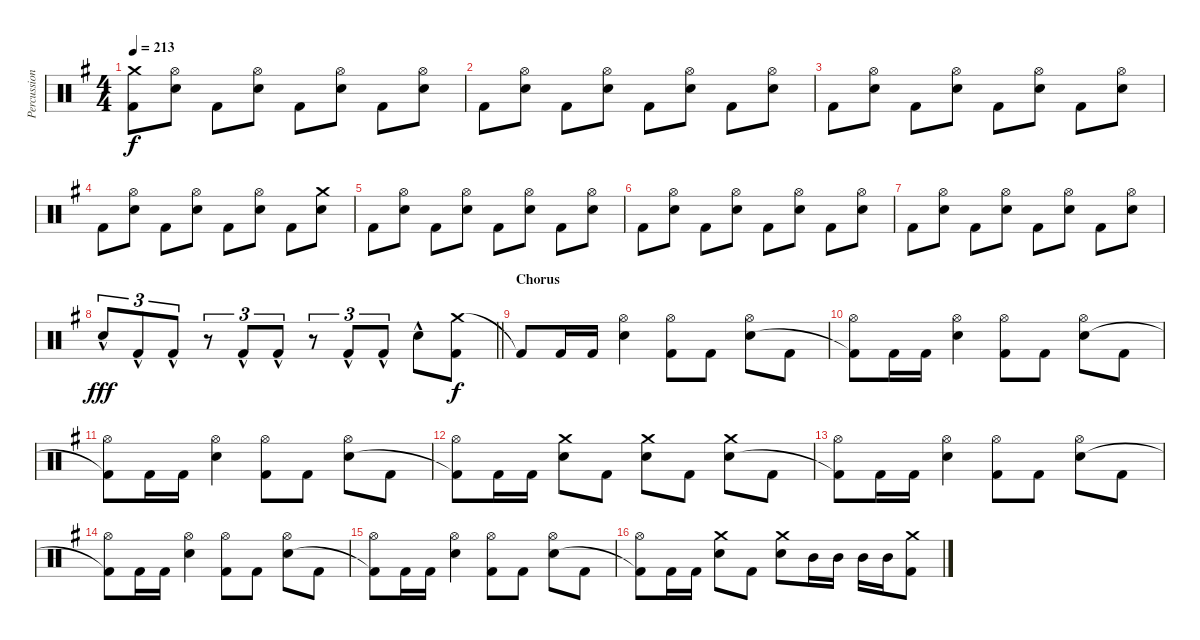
\track ("Percussion" "Percussion") {instrument percussion}
\staff {score}
\articulation defaults
\ts (4 4)
\tempo 213
\clef neutral
\ks eminor
("Crash medium (hit)" "Kick (hit) 2").8{dy f} ("Hi-Hat (open)" "Snare (hit) 2").8 "Kick (hit) 2".8 ("Hi-Hat (open)" "Snare (hit) 2").8 "Kick (hit) 2".8 ("Hi-Hat (open)" "Snare (hit) 2").8 "Kick (hit) 2".8 ("Hi-Hat (open)" "Snare (hit) 2").8 |
"Kick (hit) 2".8 ("Hi-Hat (open)" "Snare (hit) 2").8 "Kick (hit) 2".8 ("Hi-Hat (open)" "Snare (hit) 2").8 "Kick (hit) 2".8 ("Hi-Hat (open)" "Snare (hit) 2").8 "Kick (hit) 2".8 ("Hi-Hat (open)" "Snare (hit) 2").8 |
"Kick (hit) 2".8 ("Hi-Hat (open)" "Snare (hit) 2").8 "Kick (hit) 2".8 ("Hi-Hat (open)" "Snare (hit) 2").8 "Kick (hit) 2".8 ("Hi-Hat (open)" "Snare (hit) 2").8 "Kick (hit) 2".8 ("Hi-Hat (open)" "Snare (hit) 2").8 |
"Kick (hit) 2".8 ("Hi-Hat (open)" "Snare (hit) 2").8 "Kick (hit) 2".8 ("Hi-Hat (open)" "Snare (hit) 2").8 "Kick (hit) 2".8 ("Hi-Hat (open)" "Snare (hit) 2").8 "Kick (hit) 2".8 ("Crash medium (hit)" "Snare (hit) 2").8 |
"Kick (hit) 2".8 ("Hi-Hat (open)" "Snare (hit) 2").8 "Kick (hit) 2".8 ("Hi-Hat (open)" "Snare (hit) 2").8 "Kick (hit) 2".8 ("Hi-Hat (open)" "Snare (hit) 2").8 "Kick (hit) 2".8 ("Hi-Hat (open)" "Snare (hit) 2").8 |
"Kick (hit) 2".8 ("Hi-Hat (open)" "Snare (hit) 2").8 "Kick (hit) 2".8 ("Hi-Hat (open)" "Snare (hit) 2").8 "Kick (hit) 2".8 ("Hi-Hat (open)" "Snare (hit) 2").8 "Kick (hit) 2".8 ("Hi-Hat (open)" "Snare (hit) 2").8 |
"Kick (hit) 2".8 ("Hi-Hat (open)" "Snare (hit) 2").8 "Kick (hit) 2".8 ("Hi-Hat (open)" "Snare (hit) 2").8 "Kick (hit) 2".8 ("Hi-Hat (open)" "Snare (hit) 2").8 "Kick (hit) 2".8 ("Hi-Hat (open)" "Snare (hit) 2").8 |
\barLineRight lightlight "Snare (hit) 2"{hac}.8{tu (3 2) dy fff} "Kick (hit) 2"{hac}.8{tu (3 2)} "Kick (hit) 2"{hac}.8{tu (3 2)}
r.8{tu (3 2)} "Kick (hit) 2"{hac}.8{tu (3 2)} "Kick (hit) 2"{hac}.8{tu (3 2)} r.8{tu (3 2)} "Kick (hit) 2"{hac}.8{tu (3 2)} "Kick (hit) 2"{hac}.8{tu (3 2)} "Snare (hit) 2"{hac}.8 ("Crash medium (hit)" "Kick (hit) 2").8{dy f} |
\section ("" "Chorus")
"Kick (hit) 2"{t}.8 "Kick (hit) 2".16 "Kick (hit) 2".16 ("Hi-Hat (open)" "Snare (hit) 2").4 ("Hi-Hat (open)" "Kick (hit) 2").8 "Kick (hit) 2".8 ("Hi-Hat (open)" "Snare (hit) 2").8 "Kick (hit) 2".8 |
("Hi-Hat (open)" "Kick (hit) 2"{t}).8 "Kick (hit) 2".16 "Kick (hit) 2".16 ("Hi-Hat (open)" "Snare (hit) 2").4 ("Hi-Hat (open)" "Kick (hit) 2").8 "Kick (hit) 2".8 ("Hi-Hat (open)" "Snare (hit) 2").8 "Kick (hit) 2".8 |
("Hi-Hat (open)" "Kick (hit) 2"{t}).8 "Kick (hit) 2".16 "Kick (hit) 2".16 ("Hi-Hat (open)" "Snare (hit) 2").4 ("Hi-Hat (open)" "Kick (hit) 2").8 "Kick (hit) 2".8 ("Hi-Hat (open)" "Snare (hit) 2").8 "Kick (hit) 2".8 |
("Hi-Hat (open)" "Kick (hit) 2"{t}).8 "Kick (hit) 2".16 "Kick (hit) 2".16 ("Crash medium (hit)" "Snare (hit) 2").8 "Kick (hit) 2".8 ("Crash medium (hit)" "Snare (hit) 2").8 "Kick (hit) 2".8 ("Crash medium (hit)" "Snare (hit) 2").8 "Kick (hit) 2".8 |
("Hi-Hat (open)" "Kick (hit) 2"{t}).8 "Kick (hit) 2".16 "Kick (hit) 2".16 ("Hi-Hat (open)" "Snare (hit) 2").4 ("Hi-Hat (open)" "Kick (hit) 2").8 "Kick (hit) 2".8 ("Hi-Hat (open)" "Snare (hit) 2").8 "Kick (hit) 2".8 |
("Hi-Hat (open)" "Kick (hit) 2"{t}).8 "Kick (hit) 2".16 "Kick (hit) 2".16 ("Hi-Hat (open)" "Snare (hit) 2").4 ("Hi-Hat (open)" "Kick (hit) 2").8 "Kick (hit) 2".8 ("Hi-Hat (open)" "Snare (hit) 2").8 "Kick (hit) 2".8 |
("Hi-Hat (open)" "Kick (hit) 2"{t}).8 "Kick (hit) 2".16 "Kick (hit) 2".16 ("Hi-Hat (open)" "Snare (hit) 2").4 ("Hi-Hat (open)" "Kick (hit) 2").8 "Kick (hit) 2".8 ("Hi-Hat (open)" "Snare (hit) 2").8 "Kick (hit) 2".8 |
("Hi-Hat (open)" "Kick (hit) 2"{t}).8 "Kick (hit) 2".16 "Kick (hit) 2".16 ("Crash medium (hit)" "Snare (hit) 2").8 "Kick (hit) 2".8 ("Crash medium (hit)" "Snare (hit) 2").8 "Mid Tom (hit)".16 "Mid Tom (hit)".16 "Mid Tom (hit)".16 "Mid Tom (hit)".16 ("Crash medium (hit)" "Kick (hit) 2").8
